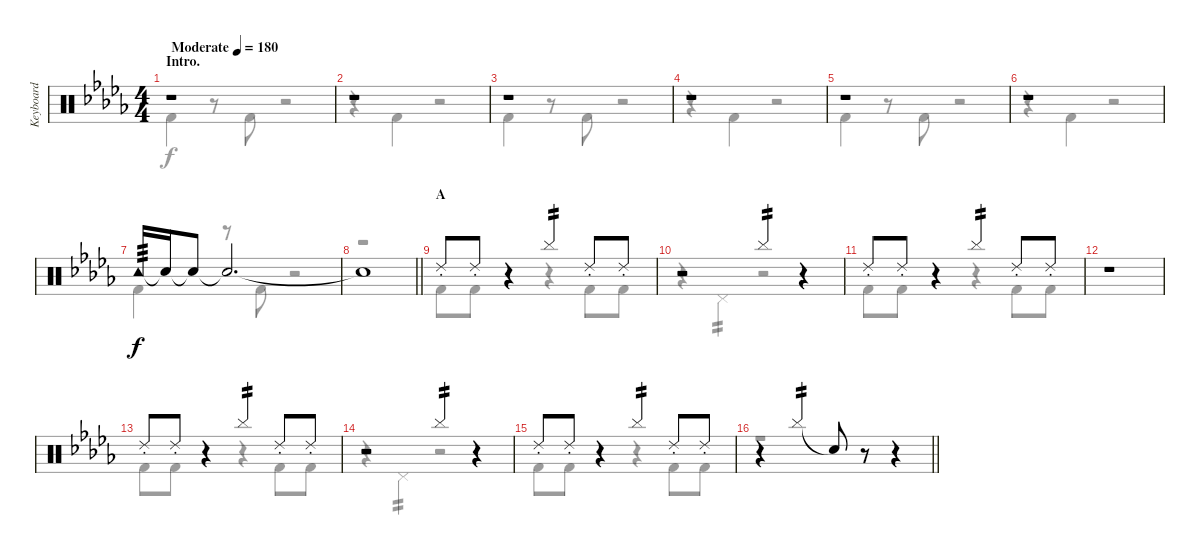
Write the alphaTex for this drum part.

\track ("Keyboard" "Keyboard") {instrument percussion}
\staff {score}
\articulation defaults
\voice
\ts (4 4)
\section ("" "Intro.")
\tempo (180 "Moderate")
\clef neutral
\ks db
r.1{dy f} |
r.1 |
r.1 |
r.1 |
r.1 |
r.1 |
"Tambourine (hit)".16{tp 3 volume 4} "Snare (hit)"{t}.16{volume 13} "Snare (hit)"{t}.8 "Snare (hit)"{t}.2{d} |
\barLineRight lightlight "Snare (hit)"{t}.1
|
\section ("" "A")
"Ride (choke) 2".8 "Ride (choke) 2".8 r.4 "Cymbal (hit)".4{tp 2} "Ride (choke) 2".8 "Ride (choke) 2".8 |
r.2 "Cymbal (hit)".4{tp 2} r.4 |
"Ride (choke) 2".8 "Ride (choke) 2".8 r.4 "Cymbal (hit)".4{tp 2} "Ride (choke) 2".8 "Ride (choke) 2".8 |
r.1 |
"Ride (choke) 2".8 "Ride (choke) 2".8 r.4 "Cymbal (hit)".4{tp 2} "Ride (choke) 2".8 "Ride (choke) 2".8 |
r.2 "Cymbal (hit)".4{tp 2} r.4 |
"Ride (choke) 2".8 "Ride (choke) 2".8 r.4 "Cymbal (hit)".4{tp 2} "Ride (choke) 2".8 "Ride (choke) 2".8 |
\barLineRight lightlight
r.4 "Cymbal (hit)".4{tp 2} "Snare (hit)"{t}.8 r.8 r.4
\voice
\clef neutral
\ottava regular
\simile none
\ks db "Kick (hit) 2".4{dy f}
r.8 "Kick (hit) 2".8 r.2 |
r.4 "Kick (hit) 2".4 r.2 |
"Kick (hit) 2".4 r.8 "Kick (hit) 2".8 r.2 |
r.4 "Kick (hit) 2".4 r.2 |
"Kick (hit) 2".4 r.8 "Kick (hit) 2".8 r.2 |
r.4 "Kick (hit) 2".4 r.2 |
"Kick (hit) 2".4 r.8 "Kick (hit) 2".8 r.2 |
\barLineRight lightlight
r.1 |
"Kick (hit) 2".8 "Kick (hit) 2".8 r.4 r.4 "Kick (hit) 2".8 "Kick (hit) 2".8 |
r.4 "Pedal Hi-Hat (hit)".4{tp 2} r.2 |
"Kick (hit) 2".8 "Kick (hit) 2".8 r.4 r.4 "Kick (hit) 2".8 "Kick (hit) 2".8 |
|
"Kick (hit) 2".8 "Kick (hit) 2".8 r.4 r.4 "Kick (hit) 2".8 "Kick (hit) 2".8 |
r.4 "Pedal Hi-Hat (hit)".4{tp 2} r.2 |
"Kick (hit) 2".8 "Kick (hit) 2".8 r.4 r.4 "Kick (hit) 2".8 "Kick (hit) 2".8 |
\barLineRight lightlight
r.1
